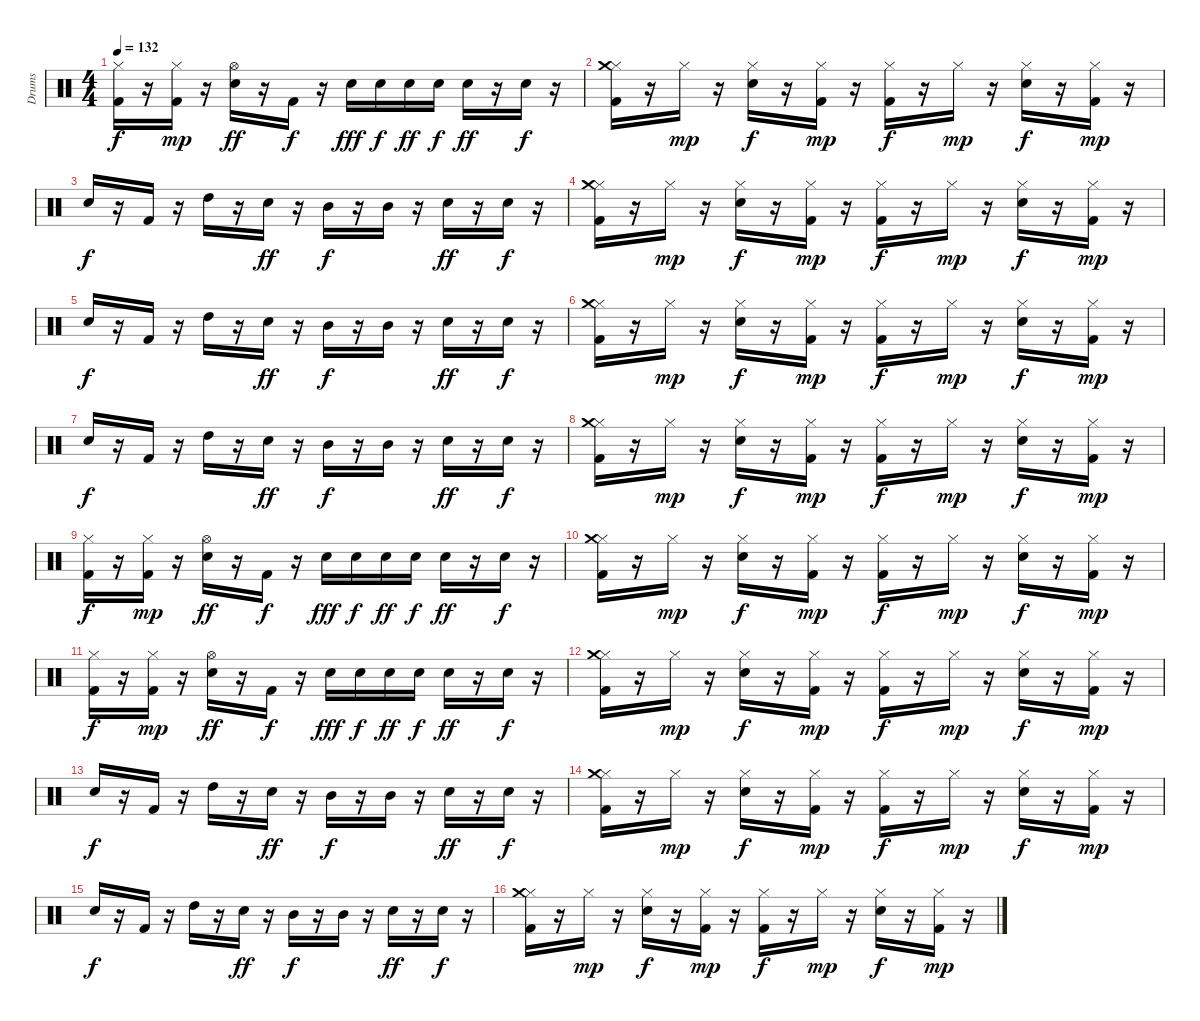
\track ("Drums" "Drums") {instrument percussion}
\staff {score}
\articulation defaults
\ts (4 4)
\tempo 132
\clef neutral
\ks c
("Kick (hit) 2" "Hi-Hat (closed)").16{dy f} r.16 ("Kick (hit) 2" "Hi-Hat (closed)").16{dy mp} r.16 ("Snare (hit) 2" "Hi-Hat (open)").16{dy ff} r.16 "Kick (hit) 2".16{dy f} r.16 "Snare (hit) 2".16{dy fff} "Snare (hit) 2".16{dy f} "Snare (hit) 2".16{dy ff} "Snare (hit) 2".16{dy f} "Snare (hit) 2".16{dy ff} r.16 "Snare (hit) 2".16{dy f} r.16 |
("Kick (hit) 2" "Hi-Hat (closed)" "Crash medium (hit)").16 r.16 "Hi-Hat (closed)".16{dy mp} r.16 ("Snare (hit) 2" "Hi-Hat (closed)").16{dy f} r.16 ("Kick (hit) 2" "Hi-Hat (closed)").16{dy mp} r.16 ("Kick (hit) 2" "Hi-Hat (closed)").16{dy f} r.16 "Hi-Hat (closed)".16{dy mp} r.16 ("Snare (hit) 2" "Hi-Hat (closed)").16{dy f} r.16 ("Kick (hit) 2" "Hi-Hat (closed)").16{dy mp} r.16 |
"Snare (hit) 2".16{dy f} r.16 "Kick (hit) 2".16 r.16 "High Tom (hit)".16 r.16 "Snare (hit) 2".16{dy ff} r.16 "Mid Tom (hit)".16{dy f} r.16 "Mid Tom (hit)".16 r.16 "Snare (hit) 2".16{dy ff} r.16 "Snare (hit) 2".16{dy f} r.16 |
("Kick (hit) 2" "Hi-Hat (closed)" "Crash medium (hit)").16 r.16 "Hi-Hat (closed)".16{dy mp} r.16 ("Snare (hit) 2" "Hi-Hat (closed)").16{dy f} r.16 ("Kick (hit) 2" "Hi-Hat (closed)").16{dy mp} r.16 ("Kick (hit) 2" "Hi-Hat (closed)").16{dy f} r.16 "Hi-Hat (closed)".16{dy mp} r.16 ("Snare (hit) 2" "Hi-Hat (closed)").16{dy f} r.16 ("Kick (hit) 2" "Hi-Hat (closed)").16{dy mp} r.16 |
"Snare (hit) 2".16{dy f} r.16 "Kick (hit) 2".16 r.16 "High Tom (hit)".16 r.16 "Snare (hit) 2".16{dy ff} r.16 "Mid Tom (hit)".16{dy f} r.16 "Mid Tom (hit)".16 r.16 "Snare (hit) 2".16{dy ff} r.16 "Snare (hit) 2".16{dy f} r.16 |
("Kick (hit) 2" "Hi-Hat (closed)" "Crash medium (hit)").16 r.16 "Hi-Hat (closed)".16{dy mp} r.16 ("Snare (hit) 2" "Hi-Hat (closed)").16{dy f} r.16 ("Kick (hit) 2" "Hi-Hat (closed)").16{dy mp} r.16 ("Kick (hit) 2" "Hi-Hat (closed)").16{dy f} r.16 "Hi-Hat (closed)".16{dy mp} r.16 ("Snare (hit) 2" "Hi-Hat (closed)").16{dy f} r.16 ("Kick (hit) 2" "Hi-Hat (closed)").16{dy mp} r.16 |
"Snare (hit) 2".16{dy f} r.16 "Kick (hit) 2".16 r.16 "High Tom (hit)".16 r.16 "Snare (hit) 2".16{dy ff} r.16 "Mid Tom (hit)".16{dy f} r.16 "Mid Tom (hit)".16 r.16 "Snare (hit) 2".16{dy ff} r.16 "Snare (hit) 2".16{dy f} r.16 |
("Kick (hit) 2" "Hi-Hat (closed)" "Crash medium (hit)").16 r.16 "Hi-Hat (closed)".16{dy mp} r.16 ("Snare (hit) 2" "Hi-Hat (closed)").16{dy f} r.16 ("Kick (hit) 2" "Hi-Hat (closed)").16{dy mp} r.16 ("Kick (hit) 2" "Hi-Hat (closed)").16{dy f} r.16 "Hi-Hat (closed)".16{dy mp} r.16 ("Snare (hit) 2" "Hi-Hat (closed)").16{dy f} r.16 ("Kick (hit) 2" "Hi-Hat (closed)").16{dy mp} r.16 |
("Kick (hit) 2" "Hi-Hat (closed)").16{dy f} r.16 ("Kick (hit) 2" "Hi-Hat (closed)").16{dy mp} r.16 ("Snare (hit) 2" "Hi-Hat (open)").16{dy ff} r.16 "Kick (hit) 2".16{dy f} r.16 "Snare (hit) 2".16{dy fff} "Snare (hit) 2".16{dy f} "Snare (hit) 2".16{dy ff} "Snare (hit) 2".16{dy f} "Snare (hit) 2".16{dy ff} r.16 "Snare (hit) 2".16{dy f} r.16 |
("Kick (hit) 2" "Hi-Hat (closed)" "Crash medium (hit)").16 r.16 "Hi-Hat (closed)".16{dy mp} r.16 ("Snare (hit) 2" "Hi-Hat (closed)").16{dy f} r.16 ("Kick (hit) 2" "Hi-Hat (closed)").16{dy mp} r.16 ("Kick (hit) 2" "Hi-Hat (closed)").16{dy f} r.16 "Hi-Hat (closed)".16{dy mp} r.16 ("Snare (hit) 2" "Hi-Hat (closed)").16{dy f} r.16 ("Kick (hit) 2" "Hi-Hat (closed)").16{dy mp} r.16 |
("Kick (hit) 2" "Hi-Hat (closed)").16{dy f} r.16 ("Kick (hit) 2" "Hi-Hat (closed)").16{dy mp} r.16 ("Snare (hit) 2" "Hi-Hat (open)").16{dy ff} r.16 "Kick (hit) 2".16{dy f} r.16 "Snare (hit) 2".16{dy fff} "Snare (hit) 2".16{dy f} "Snare (hit) 2".16{dy ff} "Snare (hit) 2".16{dy f} "Snare (hit) 2".16{dy ff} r.16 "Snare (hit) 2".16{dy f} r.16 |
("Kick (hit) 2" "Hi-Hat (closed)" "Crash medium (hit)").16 r.16 "Hi-Hat (closed)".16{dy mp} r.16 ("Snare (hit) 2" "Hi-Hat (closed)").16{dy f} r.16 ("Kick (hit) 2" "Hi-Hat (closed)").16{dy mp} r.16 ("Kick (hit) 2" "Hi-Hat (closed)").16{dy f} r.16 "Hi-Hat (closed)".16{dy mp} r.16 ("Snare (hit) 2" "Hi-Hat (closed)").16{dy f} r.16 ("Kick (hit) 2" "Hi-Hat (closed)").16{dy mp} r.16 |
"Snare (hit) 2".16{dy f} r.16 "Kick (hit) 2".16 r.16 "High Tom (hit)".16 r.16 "Snare (hit) 2".16{dy ff} r.16 "Mid Tom (hit)".16{dy f} r.16 "Mid Tom (hit)".16 r.16 "Snare (hit) 2".16{dy ff} r.16 "Snare (hit) 2".16{dy f} r.16 |
("Kick (hit) 2" "Hi-Hat (closed)" "Crash medium (hit)").16 r.16 "Hi-Hat (closed)".16{dy mp} r.16 ("Snare (hit) 2" "Hi-Hat (closed)").16{dy f} r.16 ("Kick (hit) 2" "Hi-Hat (closed)").16{dy mp} r.16 ("Kick (hit) 2" "Hi-Hat (closed)").16{dy f} r.16 "Hi-Hat (closed)".16{dy mp} r.16 ("Snare (hit) 2" "Hi-Hat (closed)").16{dy f} r.16 ("Kick (hit) 2" "Hi-Hat (closed)").16{dy mp} r.16 |
"Snare (hit) 2".16{dy f} r.16 "Kick (hit) 2".16 r.16 "High Tom (hit)".16 r.16 "Snare (hit) 2".16{dy ff} r.16 "Mid Tom (hit)".16{dy f} r.16 "Mid Tom (hit)".16 r.16 "Snare (hit) 2".16{dy ff} r.16 "Snare (hit) 2".16{dy f} r.16 |
("Kick (hit) 2" "Hi-Hat (closed)" "Crash medium (hit)").16 r.16 "Hi-Hat (closed)".16{dy mp} r.16 ("Snare (hit) 2" "Hi-Hat (closed)").16{dy f} r.16 ("Kick (hit) 2" "Hi-Hat (closed)").16{dy mp} r.16 ("Kick (hit) 2" "Hi-Hat (closed)").16{dy f} r.16 "Hi-Hat (closed)".16{dy mp} r.16 ("Snare (hit) 2" "Hi-Hat (closed)").16{dy f} r.16 ("Kick (hit) 2" "Hi-Hat (closed)").16{dy mp} r.16
